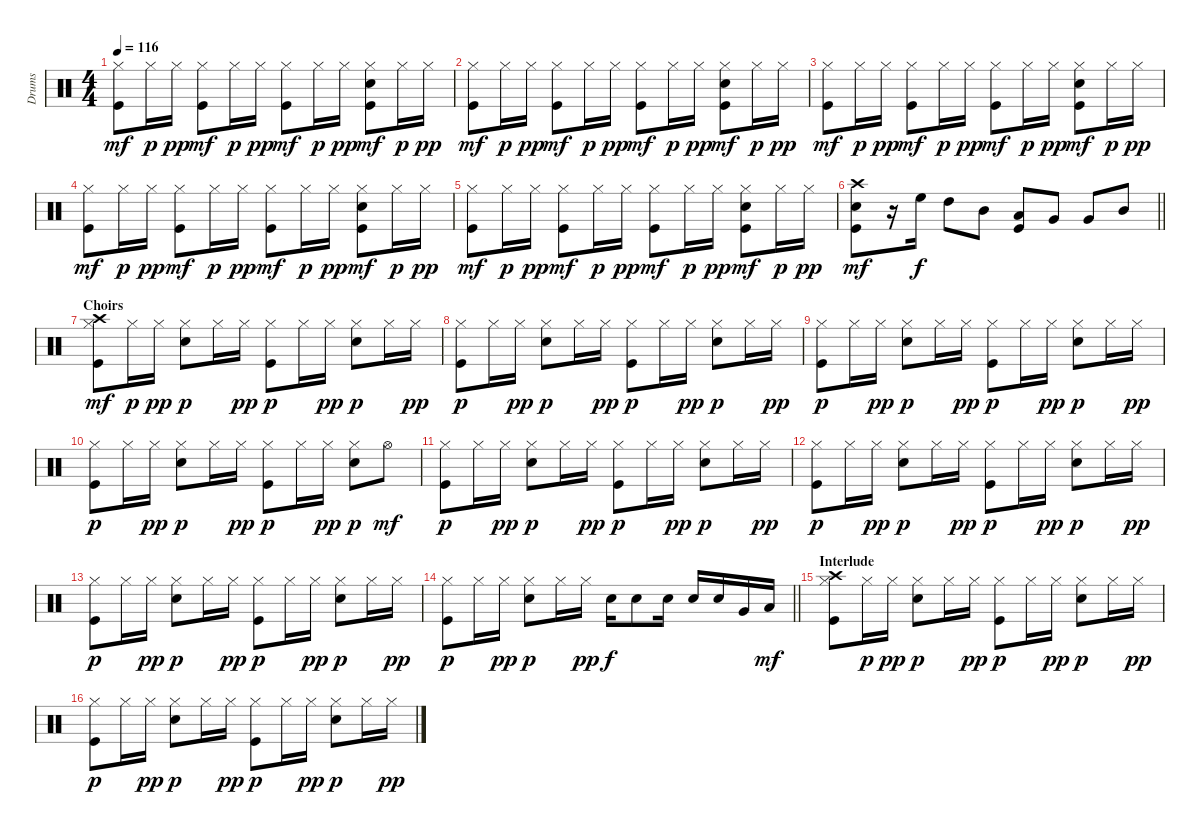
\track ("Drums" "Drums") {instrument percussion}
\staff {score}
\articulation defaults
\ts (4 4)
\tempo 116
\clef neutral
\ks c
("Hi-Hat (closed)" "Kick (hit)").8{dy mf} "Hi-Hat (closed)".16{dy p} "Hi-Hat (closed)".16{dy pp} ("Hi-Hat (closed)" "Kick (hit)").8{dy mf} "Hi-Hat (closed)".16{dy p} "Hi-Hat (closed)".16{dy pp} ("Hi-Hat (closed)" "Kick (hit)").8{dy mf} "Hi-Hat (closed)".16{dy p} "Hi-Hat (closed)".16{dy pp} ("Hi-Hat (closed)" "Snare (hit) 2" "Kick (hit)").8{dy mf} "Hi-Hat (closed)".16{dy p} "Hi-Hat (closed)".16{dy pp} |
("Hi-Hat (closed)" "Kick (hit)").8{dy mf} "Hi-Hat (closed)".16{dy p} "Hi-Hat (closed)".16{dy pp} ("Hi-Hat (closed)" "Kick (hit)").8{dy mf} "Hi-Hat (closed)".16{dy p} "Hi-Hat (closed)".16{dy pp} ("Hi-Hat (closed)" "Kick (hit)").8{dy mf} "Hi-Hat (closed)".16{dy p} "Hi-Hat (closed)".16{dy pp} ("Hi-Hat (closed)" "Snare (hit) 2" "Kick (hit)").8{dy mf} "Hi-Hat (closed)".16{dy p} "Hi-Hat (closed)".16{dy pp} |
("Hi-Hat (closed)" "Kick (hit)").8{dy mf} "Hi-Hat (closed)".16{dy p} "Hi-Hat (closed)".16{dy pp} ("Hi-Hat (closed)" "Kick (hit)").8{dy mf} "Hi-Hat (closed)".16{dy p} "Hi-Hat (closed)".16{dy pp} ("Hi-Hat (closed)" "Kick (hit)").8{dy mf} "Hi-Hat (closed)".16{dy p} "Hi-Hat (closed)".16{dy pp} ("Hi-Hat (closed)" "Snare (hit) 2" "Kick (hit)").8{dy mf} "Hi-Hat (closed)".16{dy p} "Hi-Hat (closed)".16{dy pp} |
("Hi-Hat (closed)" "Kick (hit)").8{dy mf} "Hi-Hat (closed)".16{dy p} "Hi-Hat (closed)".16{dy pp} ("Hi-Hat (closed)" "Kick (hit)").8{dy mf} "Hi-Hat (closed)".16{dy p} "Hi-Hat (closed)".16{dy pp} ("Hi-Hat (closed)" "Kick (hit)").8{dy mf} "Hi-Hat (closed)".16{dy p} "Hi-Hat (closed)".16{dy pp} ("Hi-Hat (closed)" "Snare (hit) 2" "Kick (hit)").8{dy mf} "Hi-Hat (closed)".16{dy p} "Hi-Hat (closed)".16{dy pp} |
("Hi-Hat (closed)" "Kick (hit)").8{dy mf} "Hi-Hat (closed)".16{dy p} "Hi-Hat (closed)".16{dy pp} ("Hi-Hat (closed)" "Kick (hit)").8{dy mf} "Hi-Hat (closed)".16{dy p} "Hi-Hat (closed)".16{dy pp} ("Hi-Hat (closed)" "Kick (hit)").8{dy mf} "Hi-Hat (closed)".16{dy p} "Hi-Hat (closed)".16{dy pp} ("Hi-Hat (closed)" "Snare (hit) 2" "Kick (hit)").8{dy mf} "Hi-Hat (closed)".16{dy p} "Hi-Hat (closed)".16{dy pp} |
\barLineRight lightlight
("Crash high (hit)" "Snare (hit) 2" "Kick (hit)").8{dy mf} r.16 "High Floor Tom (hit)".16{dy f} "High Tom (hit)".8 "Mid Tom (hit)".8 ("Low Tom (hit)" "Kick (hit)").8 "Very Low Tom (hit)".8 "Very Low Tom (hit)".8 "Mid Tom (hit)".8 |
\section ("" "Choirs")
("Hi-Hat (closed)" "Crash high (hit)" "Kick (hit)").8{dy mf} "Hi-Hat (closed)".16{dy p} "Hi-Hat (closed)".16{dy pp} ("Hi-Hat (closed)" "Snare (hit) 2").8{dy p} "Hi-Hat (closed)".16 "Hi-Hat (closed)".16{dy pp} ("Hi-Hat (closed)" "Kick (hit)").8{dy p} "Hi-Hat (closed)".16 "Hi-Hat (closed)".16{dy pp} ("Hi-Hat (closed)" "Snare (hit) 2").8{dy p} "Hi-Hat (closed)".16 "Hi-Hat (closed)".16{dy pp} |
("Hi-Hat (closed)" "Kick (hit)").8{dy p} "Hi-Hat (closed)".16 "Hi-Hat (closed)".16{dy pp} ("Hi-Hat (closed)" "Snare (hit) 2").8{dy p} "Hi-Hat (closed)".16 "Hi-Hat (closed)".16{dy pp} ("Hi-Hat (closed)" "Kick (hit)").8{dy p} "Hi-Hat (closed)".16 "Hi-Hat (closed)".16{dy pp} ("Hi-Hat (closed)" "Snare (hit) 2").8{dy p} "Hi-Hat (closed)".16 "Hi-Hat (closed)".16{dy pp} |
("Hi-Hat (closed)" "Kick (hit)").8{dy p} "Hi-Hat (closed)".16 "Hi-Hat (closed)".16{dy pp} ("Hi-Hat (closed)" "Snare (hit) 2").8{dy p} "Hi-Hat (closed)".16 "Hi-Hat (closed)".16{dy pp} ("Hi-Hat (closed)" "Kick (hit)").8{dy p} "Hi-Hat (closed)".16 "Hi-Hat (closed)".16{dy pp} ("Hi-Hat (closed)" "Snare (hit) 2").8{dy p} "Hi-Hat (closed)".16 "Hi-Hat (closed)".16{dy pp} |
("Hi-Hat (closed)" "Kick (hit)").8{dy p} "Hi-Hat (closed)".16 "Hi-Hat (closed)".16{dy pp} ("Hi-Hat (closed)" "Snare (hit) 2").8{dy p} "Hi-Hat (closed)".16 "Hi-Hat (closed)".16{dy pp} ("Hi-Hat (closed)" "Kick (hit)").8{dy p} "Hi-Hat (closed)".16 "Hi-Hat (closed)".16{dy pp} ("Hi-Hat (closed)" "Snare (hit) 2").8{dy p} "Hi-Hat (open)".8{dy mf} |
("Hi-Hat (closed)" "Kick (hit)").8{dy p} "Hi-Hat (closed)".16 "Hi-Hat (closed)".16{dy pp} ("Hi-Hat (closed)" "Snare (hit) 2").8{dy p} "Hi-Hat (closed)".16 "Hi-Hat (closed)".16{dy pp} ("Hi-Hat (closed)" "Kick (hit)").8{dy p} "Hi-Hat (closed)".16 "Hi-Hat (closed)".16{dy pp} ("Hi-Hat (closed)" "Snare (hit) 2").8{dy p} "Hi-Hat (closed)".16 "Hi-Hat (closed)".16{dy pp} |
("Hi-Hat (closed)" "Kick (hit)").8{dy p} "Hi-Hat (closed)".16 "Hi-Hat (closed)".16{dy pp} ("Hi-Hat (closed)" "Snare (hit) 2").8{dy p} "Hi-Hat (closed)".16 "Hi-Hat (closed)".16{dy pp} ("Hi-Hat (closed)" "Kick (hit)").8{dy p} "Hi-Hat (closed)".16 "Hi-Hat (closed)".16{dy pp} ("Hi-Hat (closed)" "Snare (hit) 2").8{dy p} "Hi-Hat (closed)".16 "Hi-Hat (closed)".16{dy pp} |
("Hi-Hat (closed)" "Kick (hit)").8{dy p} "Hi-Hat (closed)".16 "Hi-Hat (closed)".16{dy pp} ("Hi-Hat (closed)" "Snare (hit) 2").8{dy p} "Hi-Hat (closed)".16 "Hi-Hat (closed)".16{dy pp} ("Hi-Hat (closed)" "Kick (hit)").8{dy p} "Hi-Hat (closed)".16 "Hi-Hat (closed)".16{dy pp} ("Hi-Hat (closed)" "Snare (hit) 2").8{dy p} "Hi-Hat (closed)".16 "Hi-Hat (closed)".16{dy pp} |
\barLineRight lightlight
("Hi-Hat (closed)" "Kick (hit)").8{dy p} "Hi-Hat (closed)".16 "Hi-Hat (closed)".16{dy pp} ("Hi-Hat (closed)" "Snare (hit) 2").8{dy p} "Hi-Hat (closed)".16 "Hi-Hat (closed)".16{dy pp} "Snare (hit) 2".16{dy f} "Snare (hit) 2".8 "Snare (hit) 2".16 "Snare (hit) 2".16 "Snare (hit) 2".16 "Very Low Tom (hit)".16 "Low Floor Tom (hit)".16{dy mf} |
\section ("" "Interlude")
("Hi-Hat (closed)" "Crash high (hit)" "Kick (hit)").8 "Hi-Hat (closed)".16{dy p} "Hi-Hat (closed)".16{dy pp} ("Hi-Hat (closed)" "Snare (hit) 2").8{dy p} "Hi-Hat (closed)".16 "Hi-Hat (closed)".16{dy pp} ("Hi-Hat (closed)" "Kick (hit)").8{dy p} "Hi-Hat (closed)".16 "Hi-Hat (closed)".16{dy pp} ("Hi-Hat (closed)" "Snare (hit) 2").8{dy p} "Hi-Hat (closed)".16 "Hi-Hat (closed)".16{dy pp} |
("Hi-Hat (closed)" "Kick (hit)").8{dy p} "Hi-Hat (closed)".16 "Hi-Hat (closed)".16{dy pp} ("Hi-Hat (closed)" "Snare (hit) 2").8{dy p} "Hi-Hat (closed)".16 "Hi-Hat (closed)".16{dy pp} ("Hi-Hat (closed)" "Kick (hit)").8{dy p} "Hi-Hat (closed)".16 "Hi-Hat (closed)".16{dy pp} ("Hi-Hat (closed)" "Snare (hit) 2").8{dy p} "Hi-Hat (closed)".16 "Hi-Hat (closed)".16{dy pp}
